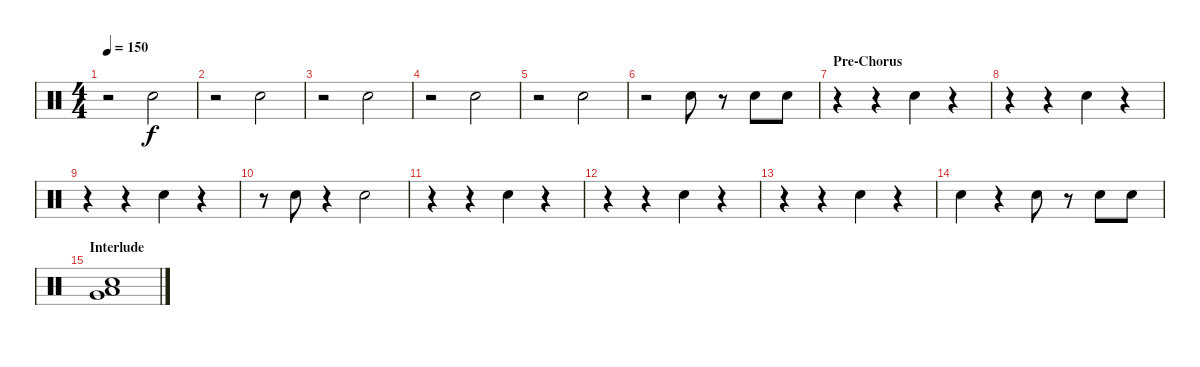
\track "" {instrument percussion}
\staff {score}
\articulation defaults
\ts (4 4)
\tempo 150
\clef neutral
\ks c
r.2{dy f} "Electric Snare (hit)".2 |
r.2 "Electric Snare (hit)".2 |
r.2 "Electric Snare (hit)".2 |
r.2 "Electric Snare (hit)".2 |
r.2 "Electric Snare (hit)".2 |
r.2 "Electric Snare (hit)".8 r.8 "Electric Snare (hit)".8 "Electric Snare (hit)".8 |
\section ("" "Pre-Chorus")
r.4 r.4 "Electric Snare (hit)".4 r.4 |
r.4 r.4 "Electric Snare (hit)".4 r.4 |
r.4 r.4 "Electric Snare (hit)".4 r.4 |
r.8 "Electric Snare (hit)".8 r.4 "Electric Snare (hit)".2 |
r.4 r.4 "Electric Snare (hit)".4 r.4 |
r.4 r.4 "Electric Snare (hit)".4 r.4 |
r.4 r.4 "Electric Snare (hit)".4 r.4 |
"Electric Snare (hit)".4 r.4 "Electric Snare (hit)".8 r.8 "Electric Snare (hit)".8 "Electric Snare (hit)".8 |
\section ("" "Interlude")
("Very Low Tom (hit)" "Low Tom (hit)" "Electric Snare (hit)").1
